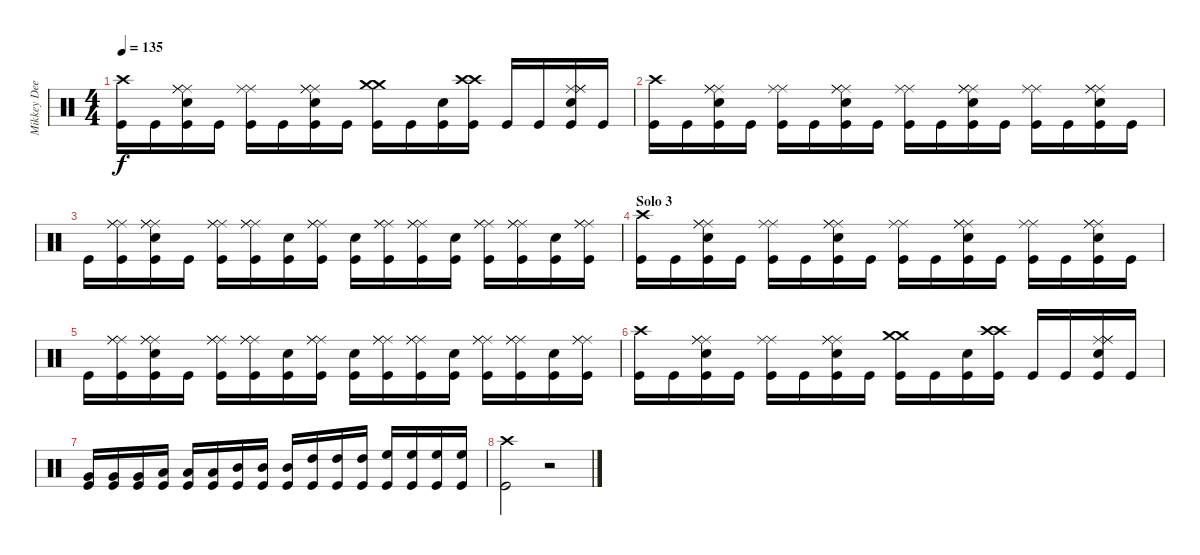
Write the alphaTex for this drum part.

\track ("Mikkey Dee - Drums" "Mikkey Dee") {instrument percussion}
\staff {score}
\articulation defaults
\ts (4 4)
\tempo 135
\clef neutral
\ks c
("Crash high (hit)" "Kick (hit)").16{dy f} "Kick (hit)".16 ("Ride (middle)" "Ride (middle)" "Ride (middle)" "Snare (hit) 2" "Kick (hit)").16 "Kick (hit)".16 ("Ride (middle)" "Ride (middle)" "Kick (hit)").16 "Kick (hit)".16 ("Ride (middle)" "Ride (middle)" "Ride (middle)" "Snare (hit) 2" "Kick (hit)").16 "Kick (hit)".16 ("Crash medium (hit)" "Crash medium (hit)" "Kick (hit)").16 "Kick (hit)".16 ("Snare (hit) 2" "Kick (hit)").16 ("Crash high (hit)" "Crash high (hit)" "Kick (hit)").16 "Kick (hit)".16 "Kick (hit)".16 ("Ride (middle)" "Ride (middle)" "Ride (middle)" "Snare (hit) 2" "Kick (hit)").16 "Kick (hit)".16 |
("Crash high (hit)" "Kick (hit)").16 "Kick (hit)".16 ("Ride (middle)" "Ride (middle)" "Ride (middle)" "Snare (hit) 2" "Kick (hit)").16 "Kick (hit)".16 ("Ride (middle)" "Ride (middle)" "Kick (hit)").16 "Kick (hit)".16 ("Ride (middle)" "Ride (middle)" "Ride (middle)" "Snare (hit) 2" "Kick (hit)").16 "Kick (hit)".16 ("Ride (middle)" "Ride (middle)" "Kick (hit)").16 "Kick (hit)".16 ("Ride (middle)" "Ride (middle)" "Ride (middle)" "Snare (hit) 2" "Kick (hit)").16 "Kick (hit)".16 ("Ride (middle)" "Ride (middle)" "Kick (hit)").16 "Kick (hit)".16 ("Ride (middle)" "Ride (middle)" "Ride (middle)" "Snare (hit) 2" "Kick (hit)").16 "Kick (hit)".16 |
"Kick (hit)".16 ("Ride (middle)" "Ride (middle)" "Ride (middle)" "Kick (hit)").16 ("Ride (middle)" "Ride (middle)" "Ride (middle)" "Snare (hit) 2" "Kick (hit)").16 "Kick (hit)".16 ("Ride (middle)" "Ride (middle)" "Ride (middle)" "Kick (hit)").16 ("Ride (middle)" "Ride (middle)" "Ride (middle)" "Kick (hit)").16 ("Snare (hit) 2" "Kick (hit)").16 ("Ride (middle)" "Ride (middle)" "Ride (middle)" "Kick (hit)").16 ("Snare (hit) 2" "Kick (hit)").16 ("Ride (middle)" "Ride (middle)" "Ride (middle)" "Kick (hit)").16 ("Ride (middle)" "Ride (middle)" "Ride (middle)" "Kick (hit)").16 ("Snare (hit) 2" "Kick (hit)").16 ("Ride (middle)" "Ride (middle)" "Ride (middle)" "Kick (hit)").16 ("Ride (middle)" "Ride (middle)" "Ride (middle)" "Kick (hit)").16 ("Snare (hit) 2" "Kick (hit)").16 ("Ride (middle)" "Ride (middle)" "Ride (middle)" "Kick (hit)").16 |
\section ("" "Solo 3")
("Crash high (hit)" "Kick (hit)").16 "Kick (hit)".16 ("Ride (middle)" "Ride (middle)" "Ride (middle)" "Snare (hit) 2" "Kick (hit)").16 "Kick (hit)".16 ("Ride (middle)" "Ride (middle)" "Kick (hit)").16 "Kick (hit)".16 ("Ride (middle)" "Ride (middle)" "Ride (middle)" "Snare (hit) 2" "Kick (hit)").16 "Kick (hit)".16 ("Ride (middle)" "Ride (middle)" "Kick (hit)").16 "Kick (hit)".16 ("Ride (middle)" "Ride (middle)" "Ride (middle)" "Snare (hit) 2" "Kick (hit)").16 "Kick (hit)".16 ("Ride (middle)" "Ride (middle)" "Kick (hit)").16 "Kick (hit)".16 ("Ride (middle)" "Ride (middle)" "Ride (middle)" "Snare (hit) 2" "Kick (hit)").16 "Kick (hit)".16 |
"Kick (hit)".16 ("Ride (middle)" "Ride (middle)" "Ride (middle)" "Kick (hit)").16 ("Ride (middle)" "Ride (middle)" "Ride (middle)" "Snare (hit) 2" "Kick (hit)").16 "Kick (hit)".16 ("Ride (middle)" "Ride (middle)" "Ride (middle)" "Kick (hit)").16 ("Ride (middle)" "Ride (middle)" "Ride (middle)" "Kick (hit)").16 ("Snare (hit) 2" "Kick (hit)").16 ("Ride (middle)" "Ride (middle)" "Ride (middle)" "Kick (hit)").16 ("Snare (hit) 2" "Kick (hit)").16 ("Ride (middle)" "Ride (middle)" "Ride (middle)" "Kick (hit)").16 ("Ride (middle)" "Ride (middle)" "Ride (middle)" "Kick (hit)").16 ("Snare (hit) 2" "Kick (hit)").16 ("Ride (middle)" "Ride (middle)" "Ride (middle)" "Kick (hit)").16 ("Ride (middle)" "Ride (middle)" "Ride (middle)" "Kick (hit)").16 ("Snare (hit) 2" "Kick (hit)").16 ("Ride (middle)" "Ride (middle)" "Ride (middle)" "Kick (hit)").16 |
("Crash high (hit)" "Kick (hit)").16 "Kick (hit)".16 ("Ride (middle)" "Ride (middle)" "Ride (middle)" "Snare (hit) 2" "Kick (hit)").16 "Kick (hit)".16 ("Ride (middle)" "Ride (middle)" "Kick (hit)").16 "Kick (hit)".16 ("Ride (middle)" "Ride (middle)" "Ride (middle)" "Snare (hit) 2" "Kick (hit)").16 "Kick (hit)".16 ("Crash medium (hit)" "Crash medium (hit)" "Kick (hit)").16 "Kick (hit)".16 ("Snare (hit) 2" "Kick (hit)").16 ("Crash high (hit)" "Crash high (hit)" "Kick (hit)").16 "Kick (hit)".16 "Kick (hit)".16 ("Ride (middle)" "Ride (middle)" "Ride (middle)" "Snare (hit) 2" "Kick (hit)").16 "Kick (hit)".16 |
("Kick (hit)" "Very Low Tom (hit)").16 ("Kick (hit)" "Very Low Tom (hit)").16 ("Kick (hit)" "Very Low Tom (hit)").16 ("Kick (hit)" "Low Tom (hit)").16 ("Kick (hit)" "Low Tom (hit)").16 ("Kick (hit)" "Low Tom (hit)").16 ("Kick (hit)" "Mid Tom (hit)").16 ("Kick (hit)" "Mid Tom (hit)").16 ("Kick (hit)" "Mid Tom (hit)").16 ("Kick (hit)" "High Tom (hit)").16 ("Kick (hit)" "High Tom (hit)").16 ("Kick (hit)" "High Tom (hit)").16 ("Kick (hit)" "High Floor Tom (hit)").16 ("Kick (hit)" "High Floor Tom (hit)").16 ("Kick (hit)" "High Floor Tom (hit)").16 ("Kick (hit)" "High Floor Tom (hit)").16 |
("Crash high (hit)" "Kick (hit)").2 r.2
